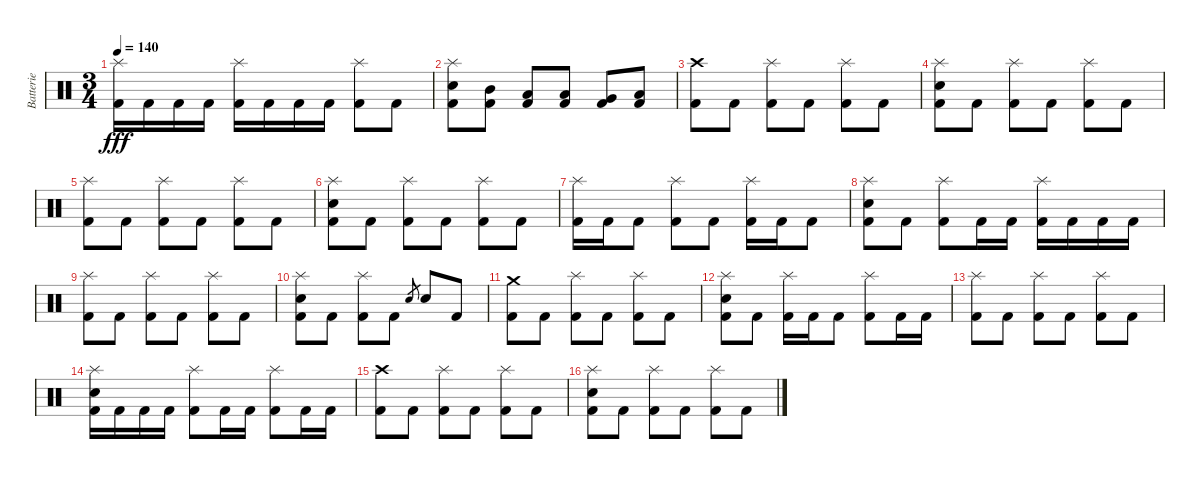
\track ("Batterie" "Batterie") {instrument percussion}
\staff {score}
\articulation defaults
\ts (3 4)
\tempo 140
\clef neutral
\ks c
("Splash (hit)" "Kick (hit) 2").16{dy fff} "Kick (hit) 2".16 "Kick (hit) 2".16 "Kick (hit) 2".16 ("Splash (hit)" "Kick (hit) 2").16 "Kick (hit) 2".16 "Kick (hit) 2".16 "Kick (hit) 2".16 ("Splash (hit)" "Kick (hit) 2").8 "Kick (hit) 2".8 |
("Splash (hit)" "Electric Snare (hit)" "Kick (hit) 2").8 ("Mid Tom (hit)" "Kick (hit) 2").8 ("Low Tom (hit)" "Kick (hit) 2").8 ("Low Tom (hit)" "Kick (hit) 2").8 ("Very Low Tom (hit)" "Kick (hit) 2").8 ("Low Floor Tom (hit)" "Kick (hit) 2").8 |
("Crash high (hit)" "Kick (hit) 2").8 "Kick (hit) 2".8 ("Splash (hit)" "Kick (hit) 2").8 "Kick (hit) 2".8 ("Splash (hit)" "Kick (hit) 2").8 "Kick (hit) 2".8 |
("Splash (hit)" "Electric Snare (hit)" "Kick (hit) 2").8 "Kick (hit) 2".8 ("Splash (hit)" "Kick (hit) 2").8 "Kick (hit) 2".8 ("Splash (hit)" "Kick (hit) 2").8 "Kick (hit) 2".8 |
("Splash (hit)" "Kick (hit) 2").8 "Kick (hit) 2".8 ("Splash (hit)" "Kick (hit) 2").8 "Kick (hit) 2".8 ("Splash (hit)" "Kick (hit) 2").8 "Kick (hit) 2".8 |
("Splash (hit)" "Electric Snare (hit)" "Kick (hit) 2").8 "Kick (hit) 2".8 ("Splash (hit)" "Kick (hit) 2").8 "Kick (hit) 2".8 ("Splash (hit)" "Kick (hit) 2").8 "Kick (hit) 2".8 |
("Splash (hit)" "Kick (hit) 2").16 "Kick (hit) 2".16 "Kick (hit) 2".8 ("Splash (hit)" "Kick (hit) 2").8 "Kick (hit) 2".8 ("Splash (hit)" "Kick (hit) 2").16 "Kick (hit) 2".16 "Kick (hit) 2".8 |
("Splash (hit)" "Electric Snare (hit)" "Kick (hit) 2").8 "Kick (hit) 2".8 ("Splash (hit)" "Kick (hit) 2").8 "Kick (hit) 2".16 "Kick (hit) 2".16 ("Splash (hit)" "Kick (hit) 2").16 "Kick (hit) 2".16 "Kick (hit) 2".16 "Kick (hit) 2".16 |
("Splash (hit)" "Kick (hit) 2").8 "Kick (hit) 2".8 ("Splash (hit)" "Kick (hit) 2").8 "Kick (hit) 2".8 ("Splash (hit)" "Kick (hit) 2").8 "Kick (hit) 2".8 |
("Splash (hit)" "Electric Snare (hit)" "Kick (hit) 2").8 "Kick (hit) 2".8 ("Splash (hit)" "Kick (hit) 2").8 "Kick (hit) 2".8 "Electric Snare (hit)".8{gr} "Electric Snare (hit)".8 "Kick (hit) 2".8 |
("Crash medium (hit)" "Kick (hit) 2").8 "Kick (hit) 2".8 ("Splash (hit)" "Kick (hit) 2").8 "Kick (hit) 2".8 ("Splash (hit)" "Kick (hit) 2").8 "Kick (hit) 2".8 |
("Splash (hit)" "Electric Snare (hit)" "Kick (hit) 2").8 "Kick (hit) 2".8 ("Splash (hit)" "Kick (hit) 2").16 "Kick (hit) 2".16 "Kick (hit) 2".8 ("Splash (hit)" "Kick (hit) 2").8 "Kick (hit) 2".16 "Kick (hit) 2".16 |
("Splash (hit)" "Kick (hit) 2").8 "Kick (hit) 2".8 ("Splash (hit)" "Kick (hit) 2").8 "Kick (hit) 2".8 ("Splash (hit)" "Kick (hit) 2").8 "Kick (hit) 2".8 |
("Splash (hit)" "Electric Snare (hit)" "Kick (hit) 2").16 "Kick (hit) 2".16 "Kick (hit) 2".16 "Kick (hit) 2".16 ("Splash (hit)" "Kick (hit) 2").8 "Kick (hit) 2".16 "Kick (hit) 2".16 ("Splash (hit)" "Kick (hit) 2").8 "Kick (hit) 2".16 "Kick (hit) 2".16 |
("Crash high (hit)" "Kick (hit) 2").8 "Kick (hit) 2".8 ("Splash (hit)" "Kick (hit) 2").8 "Kick (hit) 2".8 ("Splash (hit)" "Kick (hit) 2").8 "Kick (hit) 2".8 |
("Splash (hit)" "Electric Snare (hit)" "Kick (hit) 2").8 "Kick (hit) 2".8 ("Splash (hit)" "Kick (hit) 2").8 "Kick (hit) 2".8 ("Splash (hit)" "Kick (hit) 2").8 "Kick (hit) 2".8
